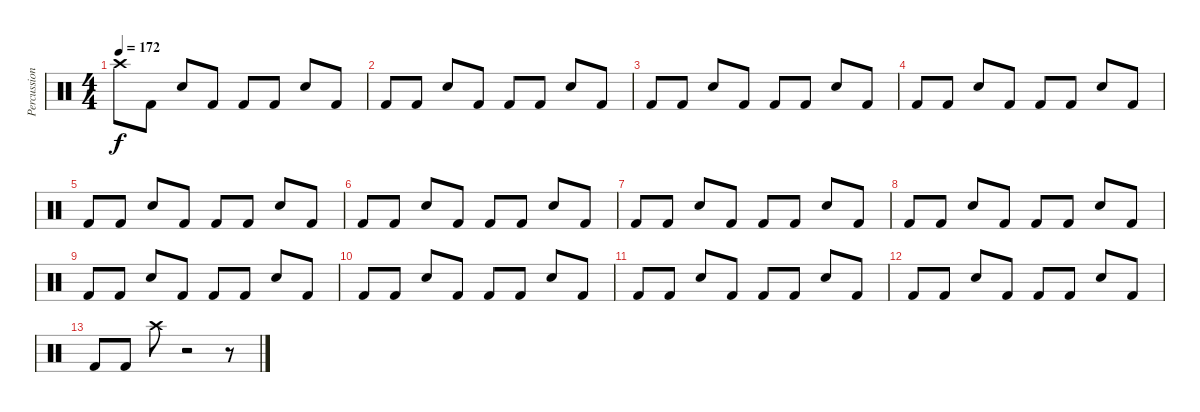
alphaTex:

\track ("Percussion" "Percussion") {instrument percussion}
\staff {score}
\articulation defaults
\ts (4 4)
\tempo 172
\clef neutral
\ks c "Crash high (hit)".8{dy f} "Kick (hit) 2".8 "Snare (hit) 2".8 "Kick (hit) 2".8 "Kick (hit) 2".8 "Kick (hit) 2".8 "Snare (hit) 2".8 "Kick (hit) 2".8
|
"Kick (hit) 2".8 "Kick (hit) 2".8 "Snare (hit) 2".8 "Kick (hit) 2".8 "Kick (hit) 2".8 "Kick (hit) 2".8 "Snare (hit) 2".8 "Kick (hit) 2".8 |
"Kick (hit) 2".8 "Kick (hit) 2".8 "Snare (hit) 2".8 "Kick (hit) 2".8 "Kick (hit) 2".8 "Kick (hit) 2".8 "Snare (hit) 2".8 "Kick (hit) 2".8 |
"Kick (hit) 2".8 "Kick (hit) 2".8 "Snare (hit) 2".8 "Kick (hit) 2".8 "Kick (hit) 2".8 "Kick (hit) 2".8 "Snare (hit) 2".8 "Kick (hit) 2".8 |
"Kick (hit) 2".8 "Kick (hit) 2".8 "Snare (hit) 2".8 "Kick (hit) 2".8 "Kick (hit) 2".8 "Kick (hit) 2".8 "Snare (hit) 2".8 "Kick (hit) 2".8 |
"Kick (hit) 2".8 "Kick (hit) 2".8 "Snare (hit) 2".8 "Kick (hit) 2".8 "Kick (hit) 2".8 "Kick (hit) 2".8 "Snare (hit) 2".8 "Kick (hit) 2".8 |
"Kick (hit) 2".8 "Kick (hit) 2".8 "Snare (hit) 2".8 "Kick (hit) 2".8 "Kick (hit) 2".8 "Kick (hit) 2".8 "Snare (hit) 2".8 "Kick (hit) 2".8 |
"Kick (hit) 2".8 "Kick (hit) 2".8 "Snare (hit) 2".8 "Kick (hit) 2".8 "Kick (hit) 2".8 "Kick (hit) 2".8 "Snare (hit) 2".8 "Kick (hit) 2".8 |
"Kick (hit) 2".8 "Kick (hit) 2".8 "Snare (hit) 2".8 "Kick (hit) 2".8 "Kick (hit) 2".8 "Kick (hit) 2".8 "Snare (hit) 2".8 "Kick (hit) 2".8 |
"Kick (hit) 2".8 "Kick (hit) 2".8 "Snare (hit) 2".8 "Kick (hit) 2".8 "Kick (hit) 2".8 "Kick (hit) 2".8 "Snare (hit) 2".8 "Kick (hit) 2".8 |
"Kick (hit) 2".8 "Kick (hit) 2".8 "Snare (hit) 2".8 "Kick (hit) 2".8 "Kick (hit) 2".8 "Kick (hit) 2".8 "Snare (hit) 2".8 "Kick (hit) 2".8 |
"Kick (hit) 2".8 "Kick (hit) 2".8 "Snare (hit) 2".8 "Kick (hit) 2".8 "Kick (hit) 2".8 "Kick (hit) 2".8 "Snare (hit) 2".8 "Kick (hit) 2".8 |
"Kick (hit) 2".8 "Kick (hit) 2".8 "Crash high (hit)".8 r.2 r.8
